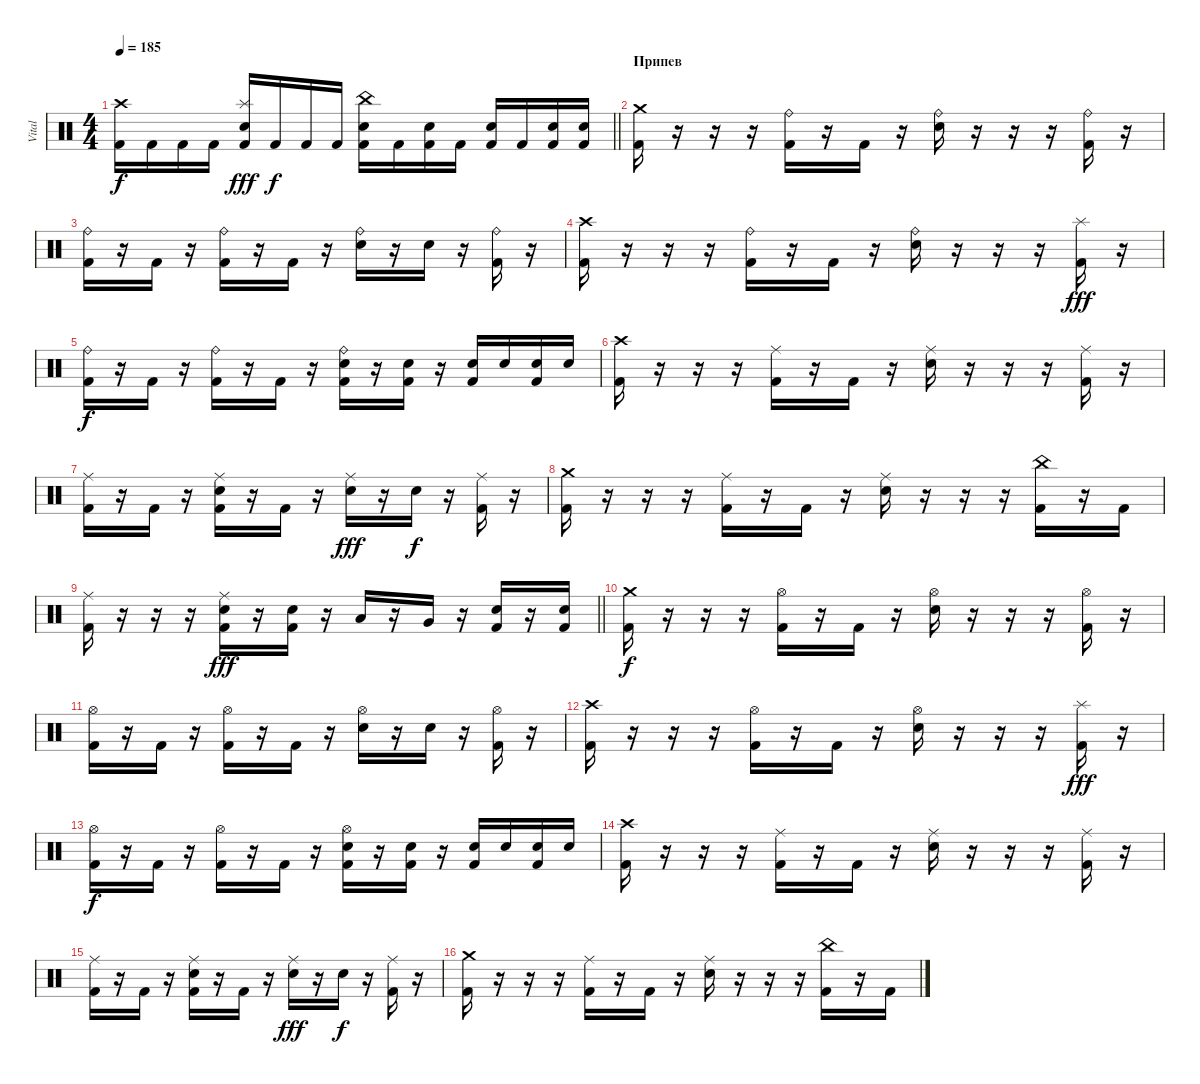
\track ("Vital" "Vital") {instrument percussion}
\staff {score}
\articulation defaults
\ts (4 4)
\tempo 185
\clef neutral
\barLineRight lightlight
\ks c
("Crash high (hit)" "Kick (hit) 2").16{dy f} "Kick (hit) 2".16 "Kick (hit) 2".16 "Kick (hit) 2".16 ("Splash (hit)" "Snare (hit) 2" "Kick (hit) 2").16{dy fff} "Kick (hit) 2".16{dy f} "Kick (hit) 2".16 "Kick (hit) 2".16 ("China (hit)" "Snare (hit) 2" "Kick (hit) 2").16 "Kick (hit) 2".16 ("Snare (hit) 2" "Kick (hit) 2").16 "Kick (hit) 2".16 ("Snare (hit) 2" "Kick (hit) 2").16 "Kick (hit) 2".16 ("Snare (hit) 2" "Kick (hit) 2").16 ("Snare (hit) 2" "Kick (hit) 2").16 |
\section ("" "Припев")
("Crash medium (hit)" "Kick (hit) 2").16 r.16 r.16 r.16 ("Ride (bell)" "Kick (hit) 2").16 r.16 "Kick (hit) 2".16 r.16 ("Ride (bell)" "Snare (hit) 2").16 r.16 r.16 r.16 ("Ride (bell)" "Kick (hit) 2").16 r.16 |
("Ride (bell)" "Kick (hit) 2").16 r.16 "Kick (hit) 2".16 r.16 ("Ride (bell)" "Kick (hit) 2").16 r.16 "Kick (hit) 2".16 r.16 ("Ride (bell)" "Snare (hit) 2").16 r.16 "Snare (hit) 2".16 r.16 ("Ride (bell)" "Kick (hit) 2").16 r.16 |
("Crash high (hit)" "Kick (hit) 2").16 r.16 r.16 r.16 ("Ride (bell)" "Kick (hit) 2").16 r.16 "Kick (hit) 2".16 r.16 ("Ride (bell)" "Snare (hit) 2").16 r.16 r.16 r.16 ("Splash (hit)" "Kick (hit) 2").16{dy fff} r.16 |
("Ride (bell)" "Kick (hit) 2").16{dy f} r.16 "Kick (hit) 2".16 r.16 ("Ride (bell)" "Kick (hit) 2").16 r.16 "Kick (hit) 2".16 r.16 ("Ride (bell)" "Snare (hit) 2" "Kick (hit) 2").16 r.16 ("Snare (hit) 2" "Kick (hit) 2").16 r.16 ("Snare (hit) 2" "Kick (hit) 2").16 "Snare (hit) 2".16 ("Snare (hit) 2" "Kick (hit) 2").16 "Snare (hit) 2".16 |
("Crash high (hit)" "Kick (hit) 2").16 r.16 r.16 r.16 ("Ride (middle)" "Kick (hit) 2").16 r.16 "Kick (hit) 2".16 r.16 ("Ride (middle)" "Snare (hit) 2").16 r.16 r.16 r.16 ("Ride (middle)" "Kick (hit) 2").16 r.16 |
("Ride (middle)" "Kick (hit) 2").16 r.16 "Kick (hit) 2".16 r.16 ("Ride (middle)" "Snare (hit) 2" "Kick (hit) 2").16 r.16 "Kick (hit) 2".16 r.16 ("Ride (middle)" "Snare (hit) 2").16{dy fff} r.16 "Snare (hit) 2".16{dy f} r.16 ("Ride (middle)" "Kick (hit) 2").16 r.16 |
("Crash medium (hit)" "Kick (hit) 2").16 r.16 r.16 r.16 ("Ride (middle)" "Kick (hit) 2").16 r.16 "Kick (hit) 2".16 r.16 ("Ride (middle)" "Snare (hit) 2").16 r.16 r.16 r.16 ("China (hit)" "Kick (hit) 2").16 r.16 "Kick (hit) 2".16 |
\barLineRight lightlight
("Ride (middle)" "Kick (hit) 2").16 r.16 r.16 r.16 ("Ride (middle)" "Snare (hit) 2" "Kick (hit) 2").16{dy fff} r.16 ("Snare (hit) 2" "Kick (hit) 2").16 r.16 "Low Tom (hit)".16 r.16 "Very Low Tom (hit)".16 r.16 ("Snare (hit) 2" "Kick (hit) 2").16 r.16 ("Snare (hit) 2" "Kick (hit) 2").16 |
("Crash medium (hit)" "Kick (hit) 2").16{dy f} r.16 r.16 r.16 ("Hi-Hat (open)" "Kick (hit) 2").16 r.16 "Kick (hit) 2".16 r.16 ("Hi-Hat (open)" "Snare (hit) 2").16 r.16 r.16 r.16 ("Hi-Hat (open)" "Kick (hit) 2").16 r.16 |
("Hi-Hat (open)" "Kick (hit) 2").16 r.16 "Kick (hit) 2".16 r.16 ("Hi-Hat (open)" "Kick (hit) 2").16 r.16 "Kick (hit) 2".16 r.16 ("Hi-Hat (open)" "Snare (hit) 2").16 r.16 "Snare (hit) 2".16 r.16 ("Hi-Hat (open)" "Kick (hit) 2").16 r.16 |
("Crash high (hit)" "Kick (hit) 2").16 r.16 r.16 r.16 ("Hi-Hat (open)" "Kick (hit) 2").16 r.16 "Kick (hit) 2".16 r.16 ("Hi-Hat (open)" "Snare (hit) 2").16 r.16 r.16 r.16 ("Splash (hit)" "Kick (hit) 2").16{dy fff} r.16 |
("Hi-Hat (open)" "Kick (hit) 2").16{dy f} r.16 "Kick (hit) 2".16 r.16 ("Hi-Hat (open)" "Kick (hit) 2").16 r.16 "Kick (hit) 2".16 r.16 ("Hi-Hat (open)" "Snare (hit) 2" "Kick (hit) 2").16 r.16 ("Snare (hit) 2" "Kick (hit) 2").16 r.16 ("Snare (hit) 2" "Kick (hit) 2").16 "Snare (hit) 2".16 ("Snare (hit) 2" "Kick (hit) 2").16 "Snare (hit) 2".16 |
("Crash high (hit)" "Kick (hit) 2").16 r.16 r.16 r.16 ("Ride (middle)" "Kick (hit) 2").16 r.16 "Kick (hit) 2".16 r.16 ("Ride (middle)" "Snare (hit) 2").16 r.16 r.16 r.16 ("Ride (middle)" "Kick (hit) 2").16 r.16 |
("Ride (middle)" "Kick (hit) 2").16 r.16 "Kick (hit) 2".16 r.16 ("Ride (middle)" "Snare (hit) 2" "Kick (hit) 2").16 r.16 "Kick (hit) 2".16 r.16 ("Ride (middle)" "Snare (hit) 2").16{dy fff} r.16 "Snare (hit) 2".16{dy f} r.16 ("Ride (middle)" "Kick (hit) 2").16 r.16 |
("Crash medium (hit)" "Kick (hit) 2").16 r.16 r.16 r.16 ("Ride (middle)" "Kick (hit) 2").16 r.16 "Kick (hit) 2".16 r.16 ("Ride (middle)" "Snare (hit) 2").16 r.16 r.16 r.16 ("China (hit)" "Kick (hit) 2").16 r.16 "Kick (hit) 2".16
